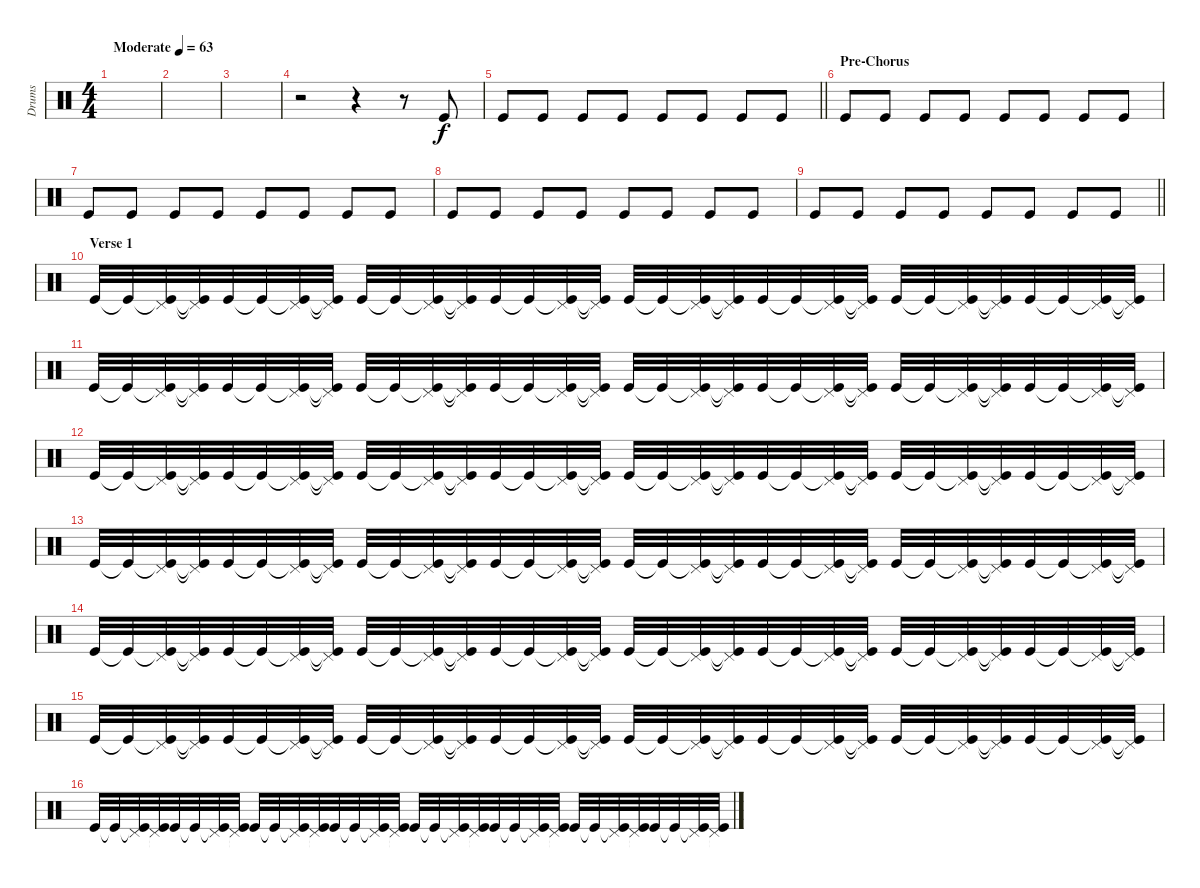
\track ("Drums" "Drums") {instrument percussion}
\staff {score}
\articulation defaults
\ts (4 4)
\tempo (63 "Moderate")
\clef neutral
\ks c
|
|
|
r.2 r.4 r.8 "Kick (hit)".8 |
\barLineRight lightlight "Kick (hit)".8 "Kick (hit)".8 "Kick (hit)".8 "Kick (hit)".8 "Kick (hit)".8 "Kick (hit)".8 "Kick (hit)".8 "Kick (hit)".8
|
\section ("" "Pre-Chorus")
"Kick (hit)".8 "Kick (hit)".8 "Kick (hit)".8 "Kick (hit)".8 "Kick (hit)".8 "Kick (hit)".8 "Kick (hit)".8 "Kick (hit)".8 |
"Kick (hit)".8 "Kick (hit)".8 "Kick (hit)".8 "Kick (hit)".8 "Kick (hit)".8 "Kick (hit)".8 "Kick (hit)".8 "Kick (hit)".8 |
"Kick (hit)".8 "Kick (hit)".8 "Kick (hit)".8 "Kick (hit)".8 "Kick (hit)".8 "Kick (hit)".8 "Kick (hit)".8 "Kick (hit)".8 |
\barLineRight lightlight "Kick (hit)".8 "Kick (hit)".8 "Kick (hit)".8 "Kick (hit)".8 "Kick (hit)".8 "Kick (hit)".8 "Kick (hit)".8 "Kick (hit)".8
|
\section ("" "Verse 1")
"Kick (hit)".32 "Kick (hit)"{t}.32 ("Kick (hit)"{t} "Pedal Hi-Hat (hit)").32 ("Kick (hit)"{t} "Pedal Hi-Hat (hit)"{t}).32 "Kick (hit)".32 "Kick (hit)"{t}.32 ("Kick (hit)"{t} "Pedal Hi-Hat (hit)").32 ("Kick (hit)"{t} "Pedal Hi-Hat (hit)"{t}).32 "Kick (hit)".32 "Kick (hit)"{t}.32 ("Kick (hit)"{t} "Pedal Hi-Hat (hit)").32 ("Kick (hit)"{t} "Pedal Hi-Hat (hit)"{t}).32 "Kick (hit)".32 "Kick (hit)"{t}.32 ("Kick (hit)"{t} "Pedal Hi-Hat (hit)").32 ("Kick (hit)"{t} "Pedal Hi-Hat (hit)"{t}).32 "Kick (hit)".32 "Kick (hit)"{t}.32 ("Kick (hit)"{t} "Pedal Hi-Hat (hit)").32 ("Kick (hit)"{t} "Pedal Hi-Hat (hit)"{t}).32 "Kick (hit)".32 "Kick (hit)"{t}.32 ("Kick (hit)"{t} "Pedal Hi-Hat (hit)").32 ("Kick (hit)"{t} "Pedal Hi-Hat (hit)"{t}).32 "Kick (hit)".32 "Kick (hit)"{t}.32 ("Kick (hit)"{t} "Pedal Hi-Hat (hit)").32 ("Kick (hit)"{t} "Pedal Hi-Hat (hit)"{t}).32 "Kick (hit)".32 "Kick (hit)"{t}.32 ("Kick (hit)"{t} "Pedal Hi-Hat (hit)").32 ("Kick (hit)"{t} "Pedal Hi-Hat (hit)"{t}).32 |
"Kick (hit)".32 "Kick (hit)"{t}.32 ("Kick (hit)"{t} "Pedal Hi-Hat (hit)").32 ("Kick (hit)"{t} "Pedal Hi-Hat (hit)"{t}).32 "Kick (hit)".32 "Kick (hit)"{t}.32 ("Kick (hit)"{t} "Pedal Hi-Hat (hit)").32 ("Kick (hit)"{t} "Pedal Hi-Hat (hit)"{t}).32 "Kick (hit)".32 "Kick (hit)"{t}.32 ("Kick (hit)"{t} "Pedal Hi-Hat (hit)").32 ("Kick (hit)"{t} "Pedal Hi-Hat (hit)"{t}).32 "Kick (hit)".32 "Kick (hit)"{t}.32 ("Kick (hit)"{t} "Pedal Hi-Hat (hit)").32 ("Kick (hit)"{t} "Pedal Hi-Hat (hit)"{t}).32 "Kick (hit)".32 "Kick (hit)"{t}.32 ("Kick (hit)"{t} "Pedal Hi-Hat (hit)").32 ("Kick (hit)"{t} "Pedal Hi-Hat (hit)"{t}).32 "Kick (hit)".32 "Kick (hit)"{t}.32 ("Kick (hit)"{t} "Pedal Hi-Hat (hit)").32 ("Kick (hit)"{t} "Pedal Hi-Hat (hit)"{t}).32 "Kick (hit)".32 "Kick (hit)"{t}.32 ("Kick (hit)"{t} "Pedal Hi-Hat (hit)").32 ("Kick (hit)"{t} "Pedal Hi-Hat (hit)"{t}).32 "Kick (hit)".32 "Kick (hit)"{t}.32 ("Kick (hit)"{t} "Pedal Hi-Hat (hit)").32 ("Kick (hit)"{t} "Pedal Hi-Hat (hit)"{t}).32 |
"Kick (hit)".32 "Kick (hit)"{t}.32 ("Kick (hit)"{t} "Pedal Hi-Hat (hit)").32 ("Kick (hit)"{t} "Pedal Hi-Hat (hit)"{t}).32 "Kick (hit)".32 "Kick (hit)"{t}.32 ("Kick (hit)"{t} "Pedal Hi-Hat (hit)").32 ("Kick (hit)"{t} "Pedal Hi-Hat (hit)"{t}).32 "Kick (hit)".32 "Kick (hit)"{t}.32 ("Kick (hit)"{t} "Pedal Hi-Hat (hit)").32 ("Kick (hit)"{t} "Pedal Hi-Hat (hit)"{t}).32 "Kick (hit)".32 "Kick (hit)"{t}.32 ("Kick (hit)"{t} "Pedal Hi-Hat (hit)").32 ("Kick (hit)"{t} "Pedal Hi-Hat (hit)"{t}).32 "Kick (hit)".32 "Kick (hit)"{t}.32 ("Kick (hit)"{t} "Pedal Hi-Hat (hit)").32 ("Kick (hit)"{t} "Pedal Hi-Hat (hit)"{t}).32 "Kick (hit)".32 "Kick (hit)"{t}.32 ("Kick (hit)"{t} "Pedal Hi-Hat (hit)").32 ("Kick (hit)"{t} "Pedal Hi-Hat (hit)"{t}).32 "Kick (hit)".32 "Kick (hit)"{t}.32 ("Kick (hit)"{t} "Pedal Hi-Hat (hit)").32 ("Kick (hit)"{t} "Pedal Hi-Hat (hit)"{t}).32 "Kick (hit)".32 "Kick (hit)"{t}.32 ("Kick (hit)"{t} "Pedal Hi-Hat (hit)").32 ("Kick (hit)"{t} "Pedal Hi-Hat (hit)"{t}).32 |
"Kick (hit)".32 "Kick (hit)"{t}.32 ("Kick (hit)"{t} "Pedal Hi-Hat (hit)").32 ("Kick (hit)"{t} "Pedal Hi-Hat (hit)"{t}).32 "Kick (hit)".32 "Kick (hit)"{t}.32 ("Kick (hit)"{t} "Pedal Hi-Hat (hit)").32 ("Kick (hit)"{t} "Pedal Hi-Hat (hit)"{t}).32 "Kick (hit)".32 "Kick (hit)"{t}.32 ("Kick (hit)"{t} "Pedal Hi-Hat (hit)").32 ("Kick (hit)"{t} "Pedal Hi-Hat (hit)"{t}).32 "Kick (hit)".32 "Kick (hit)"{t}.32 ("Kick (hit)"{t} "Pedal Hi-Hat (hit)").32 ("Kick (hit)"{t} "Pedal Hi-Hat (hit)"{t}).32 "Kick (hit)".32 "Kick (hit)"{t}.32 ("Kick (hit)"{t} "Pedal Hi-Hat (hit)").32 ("Kick (hit)"{t} "Pedal Hi-Hat (hit)"{t}).32 "Kick (hit)".32 "Kick (hit)"{t}.32 ("Kick (hit)"{t} "Pedal Hi-Hat (hit)").32 ("Kick (hit)"{t} "Pedal Hi-Hat (hit)"{t}).32 "Kick (hit)".32 "Kick (hit)"{t}.32 ("Kick (hit)"{t} "Pedal Hi-Hat (hit)").32 ("Kick (hit)"{t} "Pedal Hi-Hat (hit)"{t}).32 "Kick (hit)".32 "Kick (hit)"{t}.32 ("Kick (hit)"{t} "Pedal Hi-Hat (hit)").32 ("Kick (hit)"{t} "Pedal Hi-Hat (hit)"{t}).32 |
"Kick (hit)".32 "Kick (hit)"{t}.32 ("Kick (hit)"{t} "Pedal Hi-Hat (hit)").32 ("Kick (hit)"{t} "Pedal Hi-Hat (hit)"{t}).32 "Kick (hit)".32 "Kick (hit)"{t}.32 ("Kick (hit)"{t} "Pedal Hi-Hat (hit)").32 ("Kick (hit)"{t} "Pedal Hi-Hat (hit)"{t}).32 "Kick (hit)".32 "Kick (hit)"{t}.32 ("Kick (hit)"{t} "Pedal Hi-Hat (hit)").32 ("Kick (hit)"{t} "Pedal Hi-Hat (hit)"{t}).32 "Kick (hit)".32 "Kick (hit)"{t}.32 ("Kick (hit)"{t} "Pedal Hi-Hat (hit)").32 ("Kick (hit)"{t} "Pedal Hi-Hat (hit)"{t}).32 "Kick (hit)".32 "Kick (hit)"{t}.32 ("Kick (hit)"{t} "Pedal Hi-Hat (hit)").32 ("Kick (hit)"{t} "Pedal Hi-Hat (hit)"{t}).32 "Kick (hit)".32 "Kick (hit)"{t}.32 ("Kick (hit)"{t} "Pedal Hi-Hat (hit)").32 ("Kick (hit)"{t} "Pedal Hi-Hat (hit)"{t}).32 "Kick (hit)".32 "Kick (hit)"{t}.32 ("Kick (hit)"{t} "Pedal Hi-Hat (hit)").32 ("Kick (hit)"{t} "Pedal Hi-Hat (hit)"{t}).32 "Kick (hit)".32 "Kick (hit)"{t}.32 ("Kick (hit)"{t} "Pedal Hi-Hat (hit)").32 ("Kick (hit)"{t} "Pedal Hi-Hat (hit)"{t}).32 |
"Kick (hit)".32 "Kick (hit)"{t}.32 ("Kick (hit)"{t} "Pedal Hi-Hat (hit)").32 ("Kick (hit)"{t} "Pedal Hi-Hat (hit)"{t}).32 "Kick (hit)".32 "Kick (hit)"{t}.32 ("Kick (hit)"{t} "Pedal Hi-Hat (hit)").32 ("Kick (hit)"{t} "Pedal Hi-Hat (hit)"{t}).32 "Kick (hit)".32 "Kick (hit)"{t}.32 ("Kick (hit)"{t} "Pedal Hi-Hat (hit)").32 ("Kick (hit)"{t} "Pedal Hi-Hat (hit)"{t}).32 "Kick (hit)".32 "Kick (hit)"{t}.32 ("Kick (hit)"{t} "Pedal Hi-Hat (hit)").32 ("Kick (hit)"{t} "Pedal Hi-Hat (hit)"{t}).32 "Kick (hit)".32 "Kick (hit)"{t}.32 ("Kick (hit)"{t} "Pedal Hi-Hat (hit)").32 ("Kick (hit)"{t} "Pedal Hi-Hat (hit)"{t}).32 "Kick (hit)".32 "Kick (hit)"{t}.32 ("Kick (hit)"{t} "Pedal Hi-Hat (hit)").32 ("Kick (hit)"{t} "Pedal Hi-Hat (hit)"{t}).32 "Kick (hit)".32 "Kick (hit)"{t}.32 ("Kick (hit)"{t} "Pedal Hi-Hat (hit)").32 ("Kick (hit)"{t} "Pedal Hi-Hat (hit)"{t}).32 "Kick (hit)".32 "Kick (hit)"{t}.32 ("Kick (hit)"{t} "Pedal Hi-Hat (hit)").32 ("Kick (hit)"{t} "Pedal Hi-Hat (hit)"{t}).32 |
"Kick (hit)".32 "Kick (hit)"{t}.32 ("Kick (hit)"{t} "Pedal Hi-Hat (hit)").32 ("Kick (hit)"{t} "Pedal Hi-Hat (hit)"{t}).32 "Kick (hit)".32 "Kick (hit)"{t}.32 ("Kick (hit)"{t} "Pedal Hi-Hat (hit)").32 ("Kick (hit)"{t} "Pedal Hi-Hat (hit)"{t}).32 "Kick (hit)".32 "Kick (hit)"{t}.32 ("Kick (hit)"{t} "Pedal Hi-Hat (hit)").32 ("Kick (hit)"{t} "Pedal Hi-Hat (hit)"{t}).32 "Kick (hit)".32 "Kick (hit)"{t}.32 ("Kick (hit)"{t} "Pedal Hi-Hat (hit)").32 ("Kick (hit)"{t} "Pedal Hi-Hat (hit)"{t}).32 "Kick (hit)".32 "Kick (hit)"{t}.32 ("Kick (hit)"{t} "Pedal Hi-Hat (hit)").32 ("Kick (hit)"{t} "Pedal Hi-Hat (hit)"{t}).32 "Kick (hit)".32 "Kick (hit)"{t}.32 ("Kick (hit)"{t} "Pedal Hi-Hat (hit)").32 ("Kick (hit)"{t} "Pedal Hi-Hat (hit)"{t}).32 "Kick (hit)".32 "Kick (hit)"{t}.32 ("Kick (hit)"{t} "Pedal Hi-Hat (hit)").32 ("Kick (hit)"{t} "Pedal Hi-Hat (hit)"{t}).32 "Kick (hit)".32 "Kick (hit)"{t}.32 ("Kick (hit)"{t} "Pedal Hi-Hat (hit)").32 ("Kick (hit)"{t} "Pedal Hi-Hat (hit)"{t}).32
